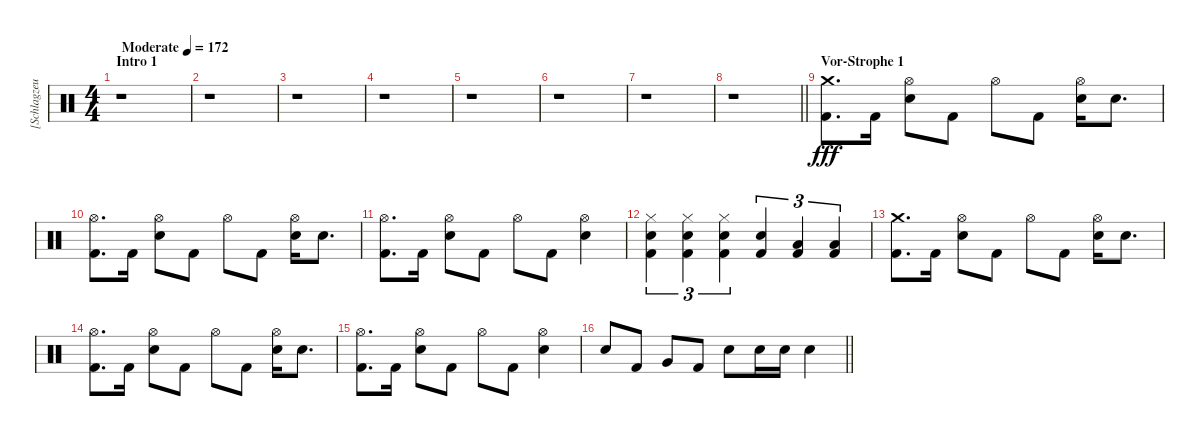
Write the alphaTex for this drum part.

\track ("[Schlagzeug]" "[Schlagzeu") {instrument percussion}
\staff {score}
\articulation defaults
\ts (4 4)
\section ("" "Intro 1")
\tempo (172 "Moderate")
\clef neutral
\ks c
r.1{dy fff} |
r.1 |
r.1 |
r.1 |
r.1 |
r.1 |
r.1 |
\barLineRight lightlight
r.1 |
\section ("" "Vor-Strophe 1")
("Crash medium (hit)" "Kick (hit) 2").8{d} "Kick (hit) 2".16 ("Hi-Hat (open)" "Electric Snare (hit)").8 "Kick (hit) 2".8 "Hi-Hat (open)".8 "Kick (hit) 2".8 ("Hi-Hat (open)" "Electric Snare (hit)").16 "Electric Snare (hit)".8{d} |
("Hi-Hat (open)" "Kick (hit) 2").8{d} "Kick (hit) 2".16 ("Hi-Hat (open)" "Electric Snare (hit)").8 "Kick (hit) 2".8 "Hi-Hat (open)".8 "Kick (hit) 2".8 ("Hi-Hat (open)" "Electric Snare (hit)").16 "Electric Snare (hit)".8{d} |
("Hi-Hat (open)" "Kick (hit) 2").8{d} "Kick (hit) 2".16 ("Hi-Hat (open)" "Electric Snare (hit)").8 "Kick (hit) 2".8 "Hi-Hat (open)".8 "Kick (hit) 2".8 ("Hi-Hat (open)" "Electric Snare (hit)").4 |
("Hi-Hat (closed)" "Electric Snare (hit)" "Kick (hit) 2").4{tu (3 2)} ("Hi-Hat (closed)" "Electric Snare (hit)" "Kick (hit) 2").4{tu (3 2)} ("Hi-Hat (closed)" "Electric Snare (hit)" "Kick (hit) 2").4{tu (3 2)} ("Electric Snare (hit)" "Kick (hit) 2").4{tu (3 2)} ("Low Tom (hit)" "Kick (hit) 2").4{tu (3 2)} ("Low Tom (hit)" "Kick (hit) 2").4{tu (3 2)} |
("Crash medium (hit)" "Kick (hit) 2").8{d} "Kick (hit) 2".16 ("Hi-Hat (open)" "Electric Snare (hit)").8 "Kick (hit) 2".8 "Hi-Hat (open)".8 "Kick (hit) 2".8 ("Hi-Hat (open)" "Electric Snare (hit)").16 "Electric Snare (hit)".8{d} |
("Hi-Hat (open)" "Kick (hit) 2").8{d} "Kick (hit) 2".16 ("Hi-Hat (open)" "Electric Snare (hit)").8 "Kick (hit) 2".8 "Hi-Hat (open)".8 "Kick (hit) 2".8 ("Hi-Hat (open)" "Electric Snare (hit)").16 "Electric Snare (hit)".8{d} |
("Hi-Hat (open)" "Kick (hit) 2").8{d} "Kick (hit) 2".16 ("Hi-Hat (open)" "Electric Snare (hit)").8 "Kick (hit) 2".8 "Hi-Hat (open)".8 "Kick (hit) 2".8 ("Hi-Hat (open)" "Electric Snare (hit)").4 |
\barLineRight lightlight "Electric Snare (hit)".8 "Kick (hit) 2".8 "Very Low Tom (hit)".8 "Kick (hit) 2".8 "Electric Snare (hit)".8 "Electric Snare (hit)".16 "Electric Snare (hit)".16 "Electric Snare (hit)".4
